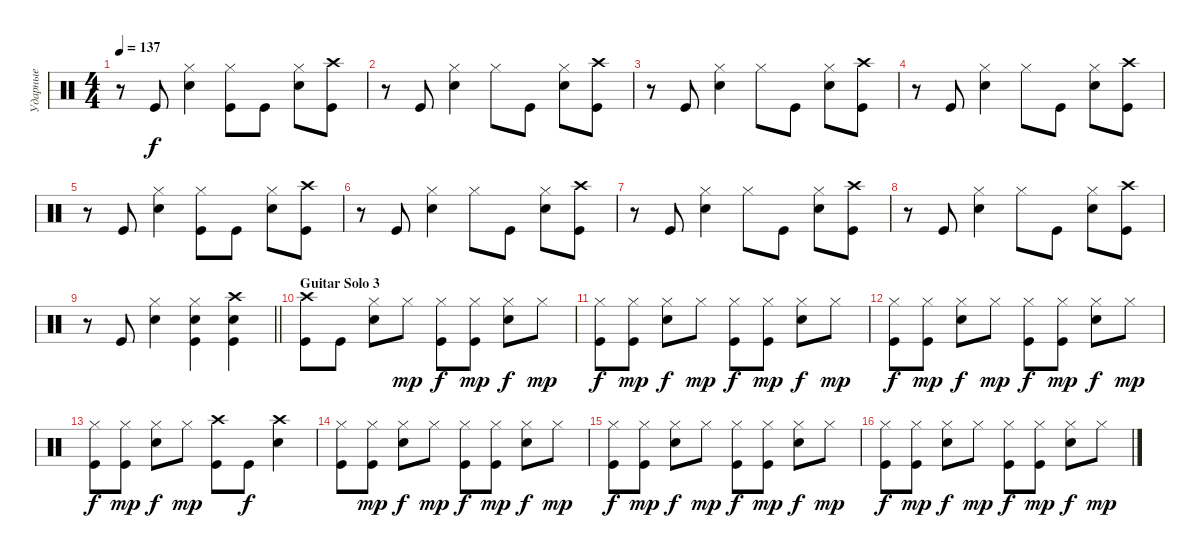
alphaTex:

\track ("Ударные" "Ударные") {instrument percussion}
\staff {score}
\articulation defaults
\ts (4 4)
\tempo 137
\clef neutral
\ks aminor
r.8{dy f} "Kick (hit)".8 ("Snare (hit) 2" "Hi-Hat (closed)").4 ("Hi-Hat (closed)" "Kick (hit)").8 "Kick (hit)".8 ("Snare (hit) 2" "Hi-Hat (closed)").8 ("Kick (hit)" "Crash high (hit)").8 |
r.8 "Kick (hit)".8 ("Snare (hit) 2" "Hi-Hat (closed)").4 "Hi-Hat (closed)".8 "Kick (hit)".8 ("Snare (hit) 2" "Hi-Hat (closed)").8 ("Kick (hit)" "Crash high (hit)").8 |
r.8 "Kick (hit)".8 ("Snare (hit) 2" "Hi-Hat (closed)").4 "Hi-Hat (closed)".8 "Kick (hit)".8 ("Snare (hit) 2" "Hi-Hat (closed)").8 ("Kick (hit)" "Crash high (hit)").8 |
r.8 "Kick (hit)".8 ("Snare (hit) 2" "Hi-Hat (closed)").4 "Hi-Hat (closed)".8 "Kick (hit)".8 ("Snare (hit) 2" "Hi-Hat (closed)").8 ("Kick (hit)" "Crash high (hit)").8 |
r.8 "Kick (hit)".8 ("Snare (hit) 2" "Hi-Hat (closed)").4 ("Hi-Hat (closed)" "Kick (hit)").8 "Kick (hit)".8 ("Snare (hit) 2" "Hi-Hat (closed)").8 ("Kick (hit)" "Crash high (hit)").8 |
r.8 "Kick (hit)".8 ("Snare (hit) 2" "Hi-Hat (closed)").4 "Hi-Hat (closed)".8 "Kick (hit)".8 ("Snare (hit) 2" "Hi-Hat (closed)").8 ("Kick (hit)" "Crash high (hit)").8 |
r.8 "Kick (hit)".8 ("Snare (hit) 2" "Hi-Hat (closed)").4 "Hi-Hat (closed)".8 "Kick (hit)".8 ("Snare (hit) 2" "Hi-Hat (closed)").8 ("Kick (hit)" "Crash high (hit)").8 |
r.8 "Kick (hit)".8 ("Snare (hit) 2" "Hi-Hat (closed)").4 "Hi-Hat (closed)".8 "Kick (hit)".8 ("Snare (hit) 2" "Hi-Hat (closed)").8 ("Kick (hit)" "Crash high (hit)").8 |
\barLineRight lightlight
r.8 "Kick (hit)".8 ("Snare (hit) 2" "Hi-Hat (closed)").4 ("Snare (hit) 2" "Hi-Hat (closed)" "Kick (hit)").4 ("Snare (hit) 2" "Crash high (hit)" "Kick (hit)").4 |
\section ("" "Guitar Solo 3")
("Kick (hit)" "Crash high (hit)").8 "Kick (hit)".8 ("Snare (hit) 2" "Hi-Hat (closed)").8 "Hi-Hat (closed)".8{dy mp} ("Hi-Hat (closed)" "Kick (hit)").8{dy f} ("Hi-Hat (closed)" "Kick (hit)").8{dy mp} ("Hi-Hat (closed)" "Snare (hit) 2").8{dy f} "Hi-Hat (closed)".8{dy mp} |
("Kick (hit)" "Hi-Hat (closed)").8{dy f} ("Kick (hit)" "Hi-Hat (closed)").8{dy mp} ("Snare (hit) 2" "Hi-Hat (closed)").8{dy f} "Hi-Hat (closed)".8{dy mp} ("Hi-Hat (closed)" "Kick (hit)").8{dy f} ("Hi-Hat (closed)" "Kick (hit)").8{dy mp} ("Hi-Hat (closed)" "Snare (hit) 2").8{dy f} "Hi-Hat (closed)".8{dy mp} |
("Kick (hit)" "Hi-Hat (closed)").8{dy f} ("Kick (hit)" "Hi-Hat (closed)").8{dy mp} ("Snare (hit) 2" "Hi-Hat (closed)").8{dy f} "Hi-Hat (closed)".8{dy mp} ("Hi-Hat (closed)" "Kick (hit)").8{dy f} ("Hi-Hat (closed)" "Kick (hit)").8{dy mp} ("Hi-Hat (closed)" "Snare (hit) 2").8{dy f} "Hi-Hat (closed)".8{dy mp} |
("Kick (hit)" "Hi-Hat (closed)").8{dy f} ("Kick (hit)" "Hi-Hat (closed)").8{dy mp} ("Snare (hit) 2" "Hi-Hat (closed)").8{dy f} "Hi-Hat (closed)".8{dy mp} ("Crash high (hit)" "Kick (hit)").8 "Kick (hit)".8{dy f} ("Crash high (hit)" "Snare (hit) 2").4 |
("Kick (hit)" "Hi-Hat (closed)").8 ("Kick (hit)" "Hi-Hat (closed)").8{dy mp} ("Snare (hit) 2" "Hi-Hat (closed)").8{dy f} "Hi-Hat (closed)".8{dy mp} ("Hi-Hat (closed)" "Kick (hit)").8{dy f} ("Hi-Hat (closed)" "Kick (hit)").8{dy mp} ("Hi-Hat (closed)" "Snare (hit) 2").8{dy f} "Hi-Hat (closed)".8{dy mp} |
("Kick (hit)" "Hi-Hat (closed)").8{dy f} ("Kick (hit)" "Hi-Hat (closed)").8{dy mp} ("Snare (hit) 2" "Hi-Hat (closed)").8{dy f} "Hi-Hat (closed)".8{dy mp} ("Hi-Hat (closed)" "Kick (hit)").8{dy f} ("Hi-Hat (closed)" "Kick (hit)").8{dy mp} ("Hi-Hat (closed)" "Snare (hit) 2").8{dy f} "Hi-Hat (closed)".8{dy mp} |
("Kick (hit)" "Hi-Hat (closed)").8{dy f} ("Kick (hit)" "Hi-Hat (closed)").8{dy mp} ("Snare (hit) 2" "Hi-Hat (closed)").8{dy f} "Hi-Hat (closed)".8{dy mp} ("Hi-Hat (closed)" "Kick (hit)").8{dy f} ("Hi-Hat (closed)" "Kick (hit)").8{dy mp} ("Hi-Hat (closed)" "Snare (hit) 2").8{dy f} "Hi-Hat (closed)".8{dy mp}
